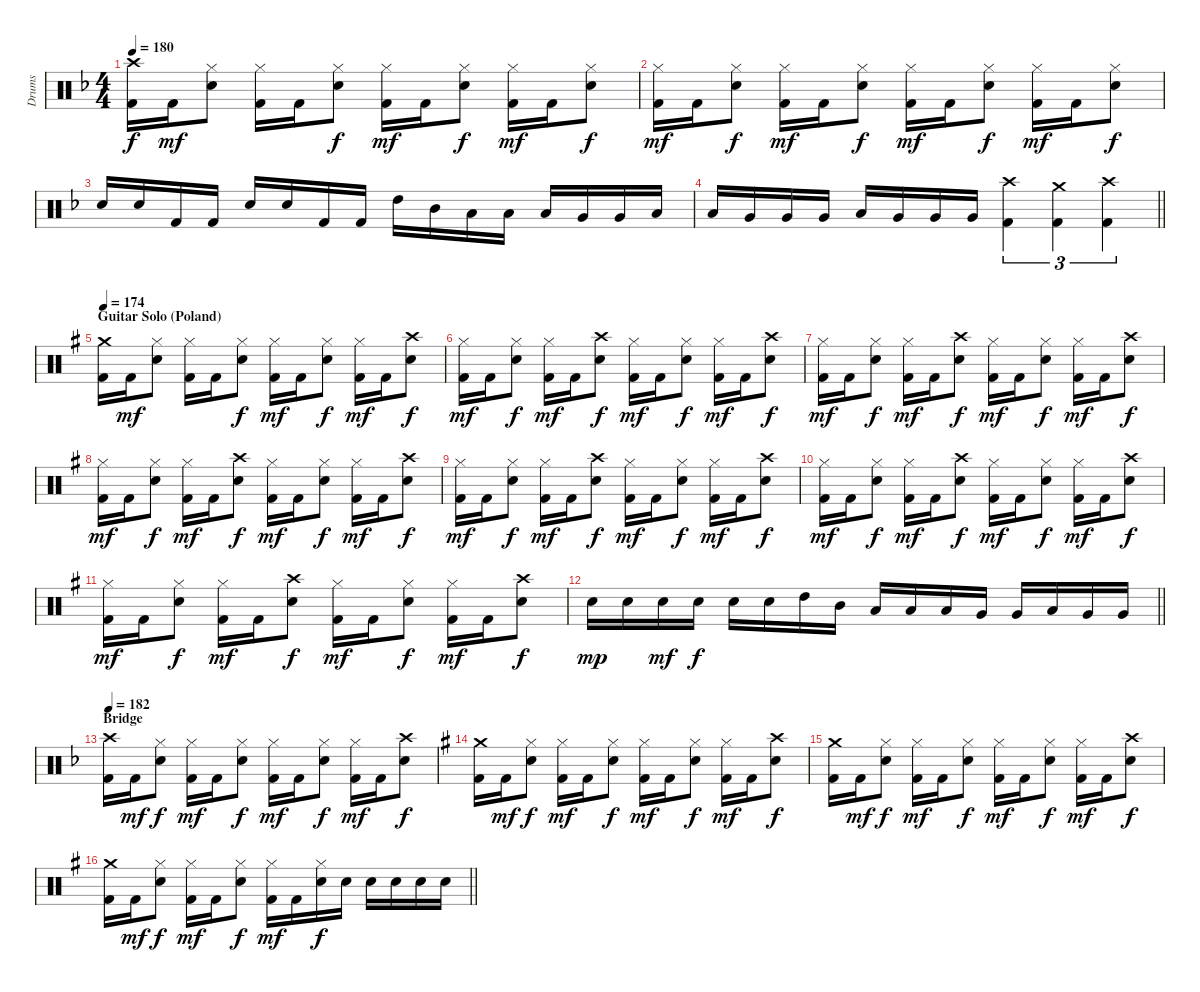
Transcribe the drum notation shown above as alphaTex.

\track ("Drums" "Drums") {instrument percussion}
\staff {score}
\articulation defaults
\ts (4 4)
\tempo 180
\clef neutral
\ks dminor
("Crash high (hit)" "Kick (hit) 2").16{dy f} "Kick (hit) 2".16{dy mf} ("Hi-Hat (closed)" "Snare (hit) 2").8 ("Hi-Hat (closed)" "Kick (hit) 2").16 "Kick (hit) 2".16 ("Hi-Hat (closed)" "Snare (hit) 2").8{dy f} ("Hi-Hat (closed)" "Kick (hit) 2").16{dy mf} "Kick (hit) 2".16 ("Hi-Hat (closed)" "Snare (hit) 2").8{dy f} ("Hi-Hat (closed)" "Kick (hit) 2").16{dy mf} "Kick (hit) 2".16 ("Hi-Hat (closed)" "Snare (hit) 2").8{dy f} |
("Hi-Hat (closed)" "Kick (hit) 2").16{dy mf} "Kick (hit) 2".16 ("Hi-Hat (closed)" "Snare (hit) 2").8{dy f} ("Hi-Hat (closed)" "Kick (hit) 2").16{dy mf} "Kick (hit) 2".16 ("Hi-Hat (closed)" "Snare (hit) 2").8{dy f} ("Hi-Hat (closed)" "Kick (hit) 2").16{dy mf} "Kick (hit) 2".16 ("Hi-Hat (closed)" "Snare (hit) 2").8{dy f} ("Hi-Hat (closed)" "Kick (hit) 2").16{dy mf} "Kick (hit) 2".16 ("Hi-Hat (closed)" "Snare (hit) 2").8{dy f} |
\ks f "Snare (hit) 2".16 "Snare (hit) 2".16 "Kick (hit) 2".16 "Kick (hit) 2".16 "Snare (hit) 2".16 "Snare (hit) 2".16 "Kick (hit) 2".16 "Kick (hit) 2".16 "High Tom (hit)".16 "Mid Tom (hit)".16 "Low Tom (hit)".16 "Low Tom (hit)".16 "Low Tom (hit)".16 "Very Low Tom (hit)".16 "Very Low Tom (hit)".16 "Low Tom (hit)".16
|
\barLineRight lightlight "Low Tom (hit)".16 "Very Low Tom (hit)".16 "Very Low Tom (hit)".16 "Very Low Tom (hit)".16 "Low Tom (hit)".16 "Very Low Tom (hit)".16 "Very Low Tom (hit)".16 "Very Low Tom (hit)".16
("Crash high (hit)" "Kick (hit) 2").4{tu (3 2)} ("Crash medium (hit)" "Kick (hit) 2").4{tu (3 2)} ("Crash high (hit)" "Kick (hit) 2").4{tu (3 2)} |
\section ("" "Guitar Solo (Poland)")
\tempo 174
\ks g
("Crash medium (hit)" "Kick (hit) 2").16 "Kick (hit) 2".16{dy mf} ("Hi-Hat (closed)" "Snare (hit) 2").8 ("Hi-Hat (closed)" "Kick (hit) 2").16 "Kick (hit) 2".16 ("Hi-Hat (closed)" "Snare (hit) 2").8{dy f} ("Hi-Hat (closed)" "Kick (hit) 2").16{dy mf} "Kick (hit) 2".16 ("Hi-Hat (closed)" "Snare (hit) 2").8{dy f} ("Hi-Hat (closed)" "Kick (hit) 2").16{dy mf} "Kick (hit) 2".16 ("Crash high (hit)" "Snare (hit) 2").8{dy f} |
("Hi-Hat (closed)" "Kick (hit) 2").16{dy mf} "Kick (hit) 2".16 ("Hi-Hat (closed)" "Snare (hit) 2").8{dy f} ("Hi-Hat (closed)" "Kick (hit) 2").16{dy mf} "Kick (hit) 2".16 ("Crash high (hit)" "Snare (hit) 2").8{dy f} ("Hi-Hat (closed)" "Kick (hit) 2").16{dy mf} "Kick (hit) 2".16 ("Hi-Hat (closed)" "Snare (hit) 2").8{dy f} ("Hi-Hat (closed)" "Kick (hit) 2").16{dy mf} "Kick (hit) 2".16 ("Crash high (hit)" "Snare (hit) 2").8{dy f} |
("Hi-Hat (closed)" "Kick (hit) 2").16{dy mf} "Kick (hit) 2".16 ("Hi-Hat (closed)" "Snare (hit) 2").8{dy f} ("Hi-Hat (closed)" "Kick (hit) 2").16{dy mf} "Kick (hit) 2".16 ("Crash high (hit)" "Snare (hit) 2").8{dy f} ("Hi-Hat (closed)" "Kick (hit) 2").16{dy mf} "Kick (hit) 2".16 ("Hi-Hat (closed)" "Snare (hit) 2").8{dy f} ("Hi-Hat (closed)" "Kick (hit) 2").16{dy mf} "Kick (hit) 2".16 ("Crash high (hit)" "Snare (hit) 2").8{dy f} |
("Hi-Hat (closed)" "Kick (hit) 2").16{dy mf} "Kick (hit) 2".16 ("Hi-Hat (closed)" "Snare (hit) 2").8{dy f} ("Hi-Hat (closed)" "Kick (hit) 2").16{dy mf} "Kick (hit) 2".16 ("Crash high (hit)" "Snare (hit) 2").8{dy f} ("Hi-Hat (closed)" "Kick (hit) 2").16{dy mf} "Kick (hit) 2".16 ("Hi-Hat (closed)" "Snare (hit) 2").8{dy f} ("Hi-Hat (closed)" "Kick (hit) 2").16{dy mf} "Kick (hit) 2".16 ("Crash high (hit)" "Snare (hit) 2").8{dy f} |
("Hi-Hat (closed)" "Kick (hit) 2").16{dy mf} "Kick (hit) 2".16 ("Hi-Hat (closed)" "Snare (hit) 2").8{dy f} ("Hi-Hat (closed)" "Kick (hit) 2").16{dy mf} "Kick (hit) 2".16 ("Crash high (hit)" "Snare (hit) 2").8{dy f} ("Hi-Hat (closed)" "Kick (hit) 2").16{dy mf} "Kick (hit) 2".16 ("Hi-Hat (closed)" "Snare (hit) 2").8{dy f} ("Hi-Hat (closed)" "Kick (hit) 2").16{dy mf} "Kick (hit) 2".16 ("Crash high (hit)" "Snare (hit) 2").8{dy f} |
("Hi-Hat (closed)" "Kick (hit) 2").16{dy mf} "Kick (hit) 2".16 ("Hi-Hat (closed)" "Snare (hit) 2").8{dy f} ("Hi-Hat (closed)" "Kick (hit) 2").16{dy mf} "Kick (hit) 2".16 ("Crash high (hit)" "Snare (hit) 2").8{dy f} ("Hi-Hat (closed)" "Kick (hit) 2").16{dy mf} "Kick (hit) 2".16 ("Hi-Hat (closed)" "Snare (hit) 2").8{dy f} ("Hi-Hat (closed)" "Kick (hit) 2").16{dy mf} "Kick (hit) 2".16 ("Crash high (hit)" "Snare (hit) 2").8{dy f} |
("Hi-Hat (closed)" "Kick (hit) 2").16{dy mf} "Kick (hit) 2".16 ("Hi-Hat (closed)" "Snare (hit) 2").8{dy f} ("Hi-Hat (closed)" "Kick (hit) 2").16{dy mf} "Kick (hit) 2".16 ("Crash high (hit)" "Snare (hit) 2").8{dy f} ("Hi-Hat (closed)" "Kick (hit) 2").16{dy mf} "Kick (hit) 2".16 ("Hi-Hat (closed)" "Snare (hit) 2").8{dy f} ("Hi-Hat (closed)" "Kick (hit) 2").16{dy mf} "Kick (hit) 2".16 ("Crash high (hit)" "Snare (hit) 2").8{dy f} |
\barLineRight lightlight "Snare (hit) 2".16{dy mp} "Snare (hit) 2".16 "Snare (hit) 2".16{dy mf} "Snare (hit) 2".16{dy f} "Snare (hit) 2".16 "Snare (hit) 2".16 "High Tom (hit)".16 "Mid Tom (hit)".16 "Low Tom (hit)".16 "Low Tom (hit)".16 "Low Tom (hit)".16 "Very Low Tom (hit)".16 "Very Low Tom (hit)".16 "Low Tom (hit)".16 "Very Low Tom (hit)".16 "Very Low Tom (hit)".16
|
\section ("" "Bridge")
\tempo 182
\ks f
("Crash high (hit)" "Kick (hit) 2").16 "Kick (hit) 2".16{dy mf} ("Hi-Hat (closed)" "Snare (hit) 2").8{dy f} ("Hi-Hat (closed)" "Kick (hit) 2").16{dy mf} "Kick (hit) 2".16 ("Hi-Hat (closed)" "Snare (hit) 2").8{dy f} ("Hi-Hat (closed)" "Kick (hit) 2").16{dy mf} "Kick (hit) 2".16 ("Hi-Hat (closed)" "Snare (hit) 2").8{dy f} ("Hi-Hat (closed)" "Kick (hit) 2").16{dy mf} "Kick (hit) 2".16 ("Crash high (hit)" "Snare (hit) 2").8{dy f} |
\ks eminor
("Crash medium (hit)" "Kick (hit) 2").16 "Kick (hit) 2".16{dy mf} ("Hi-Hat (closed)" "Snare (hit) 2").8{dy f} ("Hi-Hat (closed)" "Kick (hit) 2").16{dy mf} "Kick (hit) 2".16 ("Hi-Hat (closed)" "Snare (hit) 2").8{dy f} ("Hi-Hat (closed)" "Kick (hit) 2").16{dy mf} "Kick (hit) 2".16 ("Hi-Hat (closed)" "Snare (hit) 2").8{dy f} ("Hi-Hat (closed)" "Kick (hit) 2").16{dy mf} "Kick (hit) 2".16 ("Crash high (hit)" "Snare (hit) 2").8{dy f} |
("Crash medium (hit)" "Kick (hit) 2").16 "Kick (hit) 2".16{dy mf} ("Hi-Hat (closed)" "Snare (hit) 2").8{dy f} ("Hi-Hat (closed)" "Kick (hit) 2").16{dy mf} "Kick (hit) 2".16 ("Hi-Hat (closed)" "Snare (hit) 2").8{dy f} ("Hi-Hat (closed)" "Kick (hit) 2").16{dy mf} "Kick (hit) 2".16 ("Hi-Hat (closed)" "Snare (hit) 2").8{dy f} ("Hi-Hat (closed)" "Kick (hit) 2").16{dy mf} "Kick (hit) 2".16 ("Crash high (hit)" "Snare (hit) 2").8{dy f} |
\barLineRight lightlight
("Crash medium (hit)" "Kick (hit) 2").16 "Kick (hit) 2".16{dy mf} ("Hi-Hat (closed)" "Snare (hit) 2").8{dy f} ("Hi-Hat (closed)" "Kick (hit) 2").16{dy mf} "Kick (hit) 2".16 ("Hi-Hat (closed)" "Snare (hit) 2").8{dy f} ("Hi-Hat (closed)" "Kick (hit) 2").16{dy mf} "Kick (hit) 2".16 ("Hi-Hat (closed)" "Snare (hit) 2").16{dy f} "Snare (hit) 2".16 "Snare (hit) 2".16 "Snare (hit) 2".16 "Snare (hit) 2".16 "Snare (hit) 2".16
